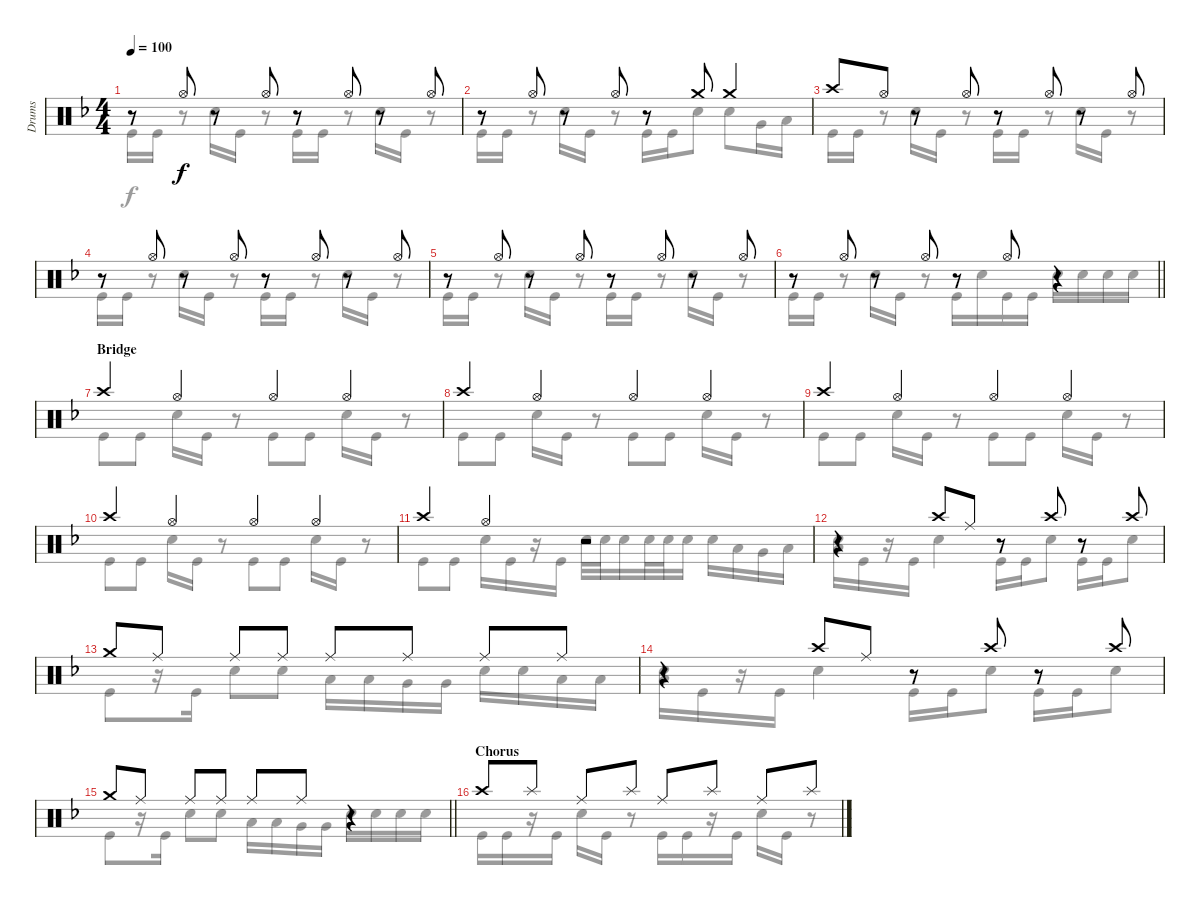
\track ("Drums" "Drums") {instrument percussion}
\staff {score}
\articulation defaults
\voice
\ts (4 4)
\tempo 100
\clef neutral
\ks dminor
r.8{dy f} "Hi-Hat (open)".8 r.8 "Hi-Hat (open)".8 r.8 "Hi-Hat (open)".8 r.8 "Hi-Hat (open)".8 |
r.8 "Hi-Hat (open)".8 r.8 "Hi-Hat (open)".8 r.8 "Crash medium (hit)".8 "Crash medium (hit)".4 |
"Crash high (hit)".8 "Hi-Hat (open)".8 r.8 "Hi-Hat (open)".8 r.8 "Hi-Hat (open)".8 r.8 "Hi-Hat (open)".8 |
r.8 "Hi-Hat (open)".8 r.8 "Hi-Hat (open)".8 r.8 "Hi-Hat (open)".8 r.8 "Hi-Hat (open)".8 |
r.8 "Hi-Hat (open)".8 r.8 "Hi-Hat (open)".8 r.8 "Hi-Hat (open)".8 r.8 "Hi-Hat (open)".8 |
\barLineRight lightlight
r.8 "Hi-Hat (open)".8 r.8 "Hi-Hat (open)".8 r.8 "Hi-Hat (open)".8 r.4 |
\section ("" "Bridge")
"Crash high (hit)".4 "Hi-Hat (open)".4 "Hi-Hat (open)".4 "Hi-Hat (open)".4 |
"Crash high (hit)".4 "Hi-Hat (open)".4 "Hi-Hat (open)".4 "Hi-Hat (open)".4 |
"Crash high (hit)".4 "Hi-Hat (open)".4 "Hi-Hat (open)".4 "Hi-Hat (open)".4 |
"Crash high (hit)".4 "Hi-Hat (open)".4 "Hi-Hat (open)".4 "Hi-Hat (open)".4 |
"Crash high (hit)".4 "Hi-Hat (open)".4 r.2 |
r.4 "Crash high (hit)".8 "Ride (middle)".8 r.8 "Crash high (hit)".8 r.8 "Crash high (hit)".8 |
"Crash medium (hit)".8 "Ride (middle)".8 "Ride (middle)".8 "Ride (middle)".8 "Ride (middle)".8 "Ride (middle)".8 "Ride (middle)".8 "Ride (middle)".8 |
r.4 "Crash high (hit)".8 "Ride (middle)".8 r.8 "Crash high (hit)".8 r.8 "Crash high (hit)".8 |
\barLineRight lightlight "Crash medium (hit)".8 "Ride (middle)".8 "Ride (middle)".8 "Ride (middle)".8 "Ride (middle)".8 "Ride (middle)".8
r.4 |
\section ("" "Chorus")
"Crash high (hit)".8 "Splash (hit)".8 "Ride (middle)".8 "Splash (hit)".8 "Ride (middle)".8 "Splash (hit)".8 "Ride (middle)".8 "Splash (hit)".8
\voice
\clef neutral
\ottava regular
\simile none
\ks dminor "Kick (hit)".16{dy f} "Kick (hit)".16
r.8 "Snare (hit) 2".16 "Kick (hit)".16 r.8 "Kick (hit)".16 "Kick (hit)".16 r.8 "Snare (hit) 2".16 "Kick (hit)".16 r.8 |
"Kick (hit)".16 "Kick (hit)".16 r.8 "Snare (hit) 2".16 "Kick (hit)".16 r.8 "Kick (hit)".16 "Kick (hit)".16 "Snare (hit) 2".8 "Snare (hit) 2".8 "Very Low Tom (hit)".16 "Low Floor Tom (hit)".16 |
"Kick (hit)".16 "Kick (hit)".16 r.8 "Snare (hit) 2".16 "Kick (hit)".16 r.8 "Kick (hit)".16 "Kick (hit)".16 r.8 "Snare (hit) 2".16 "Kick (hit)".16 r.8 |
"Kick (hit)".16 "Kick (hit)".16 r.8 "Snare (hit) 2".16 "Kick (hit)".16 r.8 "Kick (hit)".16 "Kick (hit)".16 r.8 "Snare (hit) 2".16 "Kick (hit)".16 r.8 |
"Kick (hit)".16 "Kick (hit)".16 r.8 "Snare (hit) 2".16 "Kick (hit)".16 r.8 "Kick (hit)".16 "Kick (hit)".16 r.8 "Snare (hit) 2".16 "Kick (hit)".16 r.8 |
\barLineRight lightlight "Kick (hit)".16 "Kick (hit)".16
r.8 "Snare (hit) 2".16 "Kick (hit)".16 r.8 "Kick (hit)".16 "Snare (hit) 2".16 "Kick (hit)".16 "Kick (hit)".16 "Snare (hit) 2".16 "Snare (hit) 2".16 "Snare (hit) 2".16 "Snare (hit) 2".16 |
"Kick (hit)".8 "Kick (hit)".8 "Snare (hit) 2".16 "Kick (hit)".16 r.8 "Kick (hit)".8 "Kick (hit)".8 "Snare (hit) 2".16 "Kick (hit)".16 r.8 |
"Kick (hit)".8 "Kick (hit)".8 "Snare (hit) 2".16 "Kick (hit)".16 r.8 "Kick (hit)".8 "Kick (hit)".8 "Snare (hit) 2".16 "Kick (hit)".16 r.8 |
"Kick (hit)".8 "Kick (hit)".8 "Snare (hit) 2".16 "Kick (hit)".16 r.8 "Kick (hit)".8 "Kick (hit)".8 "Snare (hit) 2".16 "Kick (hit)".16 r.8 |
"Kick (hit)".8 "Kick (hit)".8 "Snare (hit) 2".16 "Kick (hit)".16 r.8 "Kick (hit)".8 "Kick (hit)".8 "Snare (hit) 2".16 "Kick (hit)".16 r.8 |
"Kick (hit)".8 "Kick (hit)".8 "Snare (hit) 2".16 "Kick (hit)".16 r.16 "Kick (hit)".16 "Snare (hit) 2".32 "Snare (hit) 2".32 "Snare (hit) 2".16 "Snare (hit) 2".32 "Snare (hit) 2".32 "Snare (hit) 2".16 "Snare (hit) 2".16 "Low Tom (hit)".16 "Very Low Tom (hit)".16 "Low Floor Tom (hit)".16 |
("Snare (hit) 2" "Low Floor Tom (hit)").16 "Kick (hit)".16 r.16 "Kick (hit)".16 "Snare (hit) 2".4 "Kick (hit)".16 "Kick (hit)".16 "Snare (hit) 2".8 "Kick (hit)".16 "Kick (hit)".16 "Snare (hit) 2".8 |
"Kick (hit)".8 r.16 "Kick (hit)".16 "Snare (hit) 2".8 "Snare (hit) 2".8 "Low Tom (hit)".16 "Low Tom (hit)".16 "Very Low Tom (hit)".16 "Very Low Tom (hit)".16 "Snare (hit) 2".16 "Snare (hit) 2".16 "Low Floor Tom (hit)".16 "Low Floor Tom (hit)".16 |
("Snare (hit) 2" "Low Floor Tom (hit)").16 "Kick (hit)".16 r.16 "Kick (hit)".16 "Snare (hit) 2".4 "Kick (hit)".16 "Kick (hit)".16 "Snare (hit) 2".8 "Kick (hit)".16 "Kick (hit)".16 "Snare (hit) 2".8 |
\barLineRight lightlight "Kick (hit)".8
r.16 "Kick (hit)".16 "Snare (hit) 2".8 "Snare (hit) 2".8 "Low Tom (hit)".16 "Low Tom (hit)".16 "Very Low Tom (hit)".16 "Very Low Tom (hit)".16 "Snare (hit) 2".16 "Snare (hit) 2".16 "Snare (hit) 2".16 "Snare (hit) 2".16 |
"Kick (hit)".16 "Kick (hit)".16 r.16 "Kick (hit)".16 "Snare (hit) 2".16 "Kick (hit)".16 r.8 "Kick (hit)".16 "Kick (hit)".16 r.16 "Kick (hit)".16 "Snare (hit) 2".16 "Kick (hit)".16 r.8
